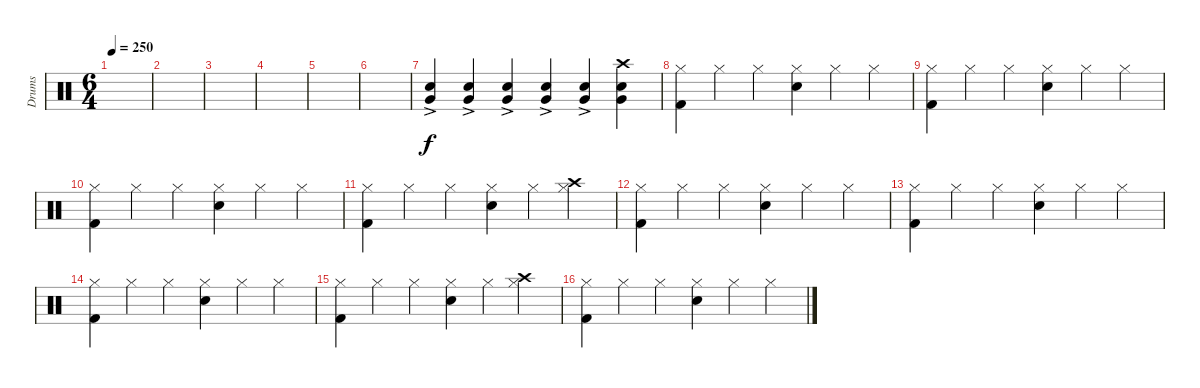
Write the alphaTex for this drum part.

\track ("Drums" "Drums") {instrument percussion}
\staff {score}
\articulation defaults
\ts (6 4)
\tempo 250
\clef neutral
\ks c
|
|
|
|
|
|
("Very Low Tom (hit)" "Snare (hit) 2"{ac}).4 ("Very Low Tom (hit)" "Snare (hit) 2"{ac}).4 ("Very Low Tom (hit)" "Snare (hit) 2"{ac}).4 ("Very Low Tom (hit)" "Snare (hit) 2"{ac}).4 ("Very Low Tom (hit)" "Snare (hit) 2"{ac}).4 ("Crash high (hit)" "Very Low Tom (hit)" "Snare (hit) 2").4{dy f} |
("Hi-Hat (closed)" "Kick (hit) 2").4 "Hi-Hat (closed)".4 "Hi-Hat (closed)".4 ("Hi-Hat (closed)" "Snare (hit) 2").4 "Hi-Hat (closed)".4 "Hi-Hat (closed)".4 |
("Hi-Hat (closed)" "Kick (hit) 2").4 "Hi-Hat (closed)".4 "Hi-Hat (closed)".4 ("Hi-Hat (closed)" "Snare (hit) 2").4 "Hi-Hat (closed)".4 "Hi-Hat (closed)".4 |
("Hi-Hat (closed)" "Kick (hit) 2").4 "Hi-Hat (closed)".4 "Hi-Hat (closed)".4 ("Hi-Hat (closed)" "Snare (hit) 2").4 "Hi-Hat (closed)".4 "Hi-Hat (closed)".4 |
("Hi-Hat (closed)" "Kick (hit) 2").4 "Hi-Hat (closed)".4 "Hi-Hat (closed)".4 ("Hi-Hat (closed)" "Snare (hit) 2").4 "Hi-Hat (closed)".4 ("Hi-Hat (closed)" "Crash high (hit)").4 |
("Hi-Hat (closed)" "Kick (hit) 2").4 "Hi-Hat (closed)".4 "Hi-Hat (closed)".4 ("Hi-Hat (closed)" "Snare (hit) 2").4 "Hi-Hat (closed)".4 "Hi-Hat (closed)".4 |
("Hi-Hat (closed)" "Kick (hit) 2").4 "Hi-Hat (closed)".4 "Hi-Hat (closed)".4 ("Hi-Hat (closed)" "Snare (hit) 2").4 "Hi-Hat (closed)".4 "Hi-Hat (closed)".4 |
("Hi-Hat (closed)" "Kick (hit) 2").4 "Hi-Hat (closed)".4 "Hi-Hat (closed)".4 ("Hi-Hat (closed)" "Snare (hit) 2").4 "Hi-Hat (closed)".4 "Hi-Hat (closed)".4 |
("Hi-Hat (closed)" "Kick (hit) 2").4 "Hi-Hat (closed)".4 "Hi-Hat (closed)".4 ("Hi-Hat (closed)" "Snare (hit) 2").4 "Hi-Hat (closed)".4 ("Hi-Hat (closed)" "Crash high (hit)").4 |
("Hi-Hat (closed)" "Kick (hit) 2").4 "Hi-Hat (closed)".4 "Hi-Hat (closed)".4 ("Hi-Hat (closed)" "Snare (hit) 2").4 "Hi-Hat (closed)".4 "Hi-Hat (closed)".4
